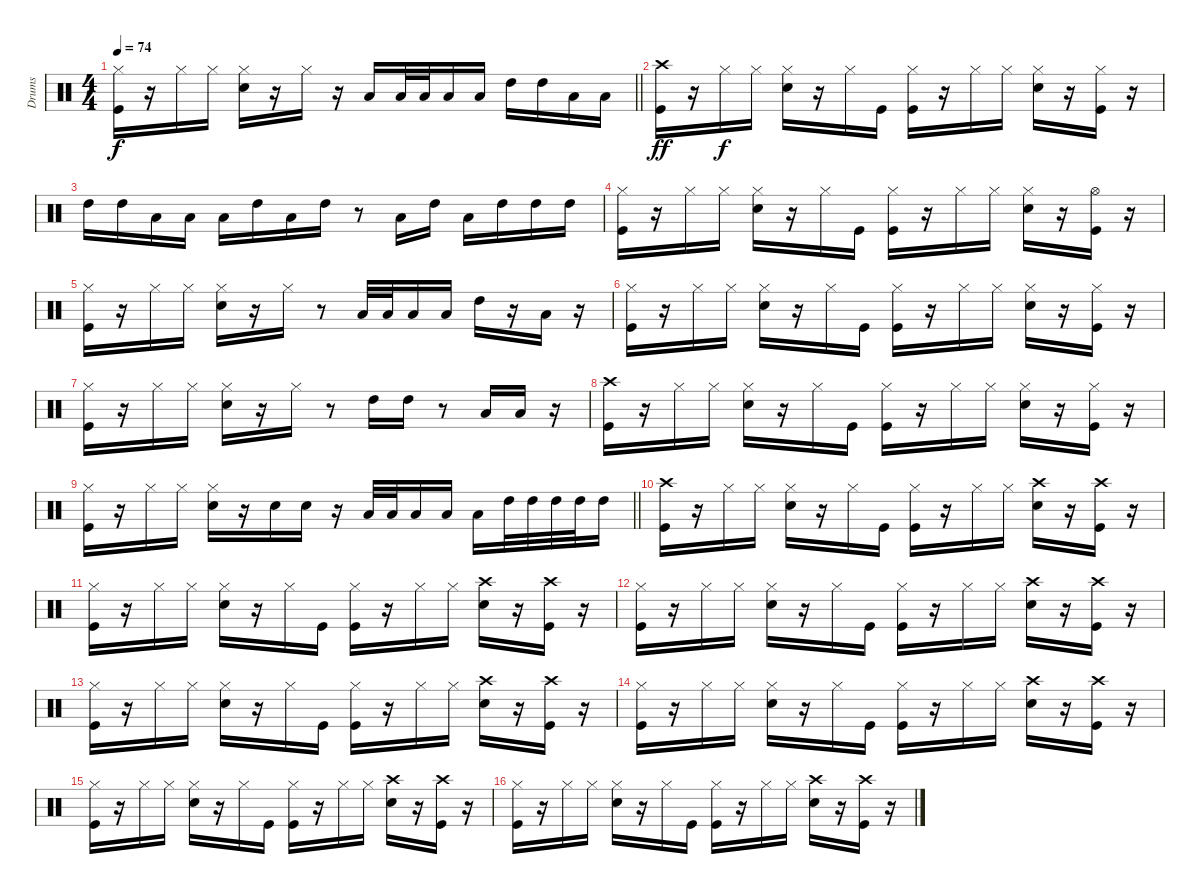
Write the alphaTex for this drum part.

\track ("Drums" "Drums") {instrument percussion}
\staff {score}
\articulation defaults
\ts (4 4)
\tempo 74
\clef neutral
\barLineRight lightlight
\ks c
("Kick (hit)" "Hi-Hat (closed)").16{dy f} r.16 "Hi-Hat (closed)".16 "Hi-Hat (closed)".16 ("Snare (hit) 2" "Hi-Hat (closed)").16 r.16 "Hi-Hat (closed)".16 r.16 "Low Floor Tom (hit)".16 "Low Floor Tom (hit)".32 "Low Floor Tom (hit)".32 "Low Floor Tom (hit)".16 "Low Floor Tom (hit)".16 "High Tom (hit)".16 "High Tom (hit)".16 "Low Floor Tom (hit)".16 "Low Floor Tom (hit)".16 |
\section ("" "")
("Kick (hit)" "Crash high (hit)").16{dy ff} r.16 "Hi-Hat (closed)".16{dy f} "Hi-Hat (closed)".16 ("Snare (hit) 2" "Hi-Hat (closed)").16 r.16 "Hi-Hat (closed)".16 "Kick (hit)".16 ("Kick (hit)" "Hi-Hat (closed)").16 r.16 "Hi-Hat (closed)".16 "Hi-Hat (closed)".16 ("Snare (hit) 2" "Hi-Hat (closed)").16 r.16 ("Kick (hit)" "Hi-Hat (closed)").16 r.16 |
"High Tom (hit)".16 "High Tom (hit)".16 "Low Tom (hit)".16 "Low Floor Tom (hit)".16 "Low Floor Tom (hit)".16 "High Tom (hit)".16 "Low Floor Tom (hit)".16 "High Tom (hit)".16 r.8 "Low Floor Tom (hit)".16 "High Tom (hit)".16 "Low Floor Tom (hit)".16 "High Tom (hit)".16 "High Tom (hit)".16 "High Tom (hit)".16 |
("Kick (hit)" "Hi-Hat (closed)").16 r.16 "Hi-Hat (closed)".16 "Hi-Hat (closed)".16 ("Snare (hit) 2" "Hi-Hat (closed)").16 r.16 "Hi-Hat (closed)".16 "Kick (hit)".16 ("Kick (hit)" "Hi-Hat (closed)").16 r.16 "Hi-Hat (closed)".16 "Hi-Hat (closed)".16 ("Snare (hit) 2" "Hi-Hat (closed)").16 r.16 ("Kick (hit)" "Hi-Hat (open)").16 r.16 |
("Kick (hit)" "Hi-Hat (closed)").16 r.16 "Hi-Hat (closed)".16 "Hi-Hat (closed)".16 ("Snare (hit) 2" "Hi-Hat (closed)").16 r.16 "Hi-Hat (closed)".16 r.8 "Low Floor Tom (hit)".32 "Low Floor Tom (hit)".32 "Low Floor Tom (hit)".16 "Low Floor Tom (hit)".16 "High Tom (hit)".16 r.16 "Low Floor Tom (hit)".16 r.16 |
("Kick (hit)" "Hi-Hat (closed)").16 r.16 "Hi-Hat (closed)".16 "Hi-Hat (closed)".16 ("Snare (hit) 2" "Hi-Hat (closed)").16 r.16 "Hi-Hat (closed)".16 "Kick (hit)".16 ("Kick (hit)" "Hi-Hat (closed)").16 r.16 "Hi-Hat (closed)".16 "Hi-Hat (closed)".16 ("Snare (hit) 2" "Hi-Hat (closed)").16 r.16 ("Kick (hit)" "Hi-Hat (closed)").16 r.16 |
("Kick (hit)" "Hi-Hat (closed)").16 r.16 "Hi-Hat (closed)".16 "Hi-Hat (closed)".16 ("Snare (hit) 2" "Hi-Hat (closed)").16 r.16 "Hi-Hat (closed)".16 r.8 "High Tom (hit)".16 "High Tom (hit)".16 r.8 "Low Floor Tom (hit)".16 "Low Floor Tom (hit)".16 r.16 |
("Kick (hit)" "Crash high (hit)").16 r.16 "Hi-Hat (closed)".16 "Hi-Hat (closed)".16 ("Snare (hit) 2" "Hi-Hat (closed)").16 r.16 "Hi-Hat (closed)".16 "Kick (hit)".16 ("Kick (hit)" "Hi-Hat (closed)").16 r.16 "Hi-Hat (closed)".16 "Hi-Hat (closed)".16 ("Snare (hit) 2" "Hi-Hat (closed)").16 r.16 ("Kick (hit)" "Hi-Hat (closed)").16 r.16 |
\barLineRight lightlight
("Kick (hit)" "Hi-Hat (closed)").16 r.16 "Hi-Hat (closed)".16 "Hi-Hat (closed)".16 ("Snare (hit) 2" "Hi-Hat (closed)").16 r.16 "Snare (hit) 2".16 "Snare (hit) 2".16 r.16 "Low Floor Tom (hit)".32 "Low Floor Tom (hit)".32 "Low Floor Tom (hit)".16 "Low Floor Tom (hit)".16 "Low Floor Tom (hit)".16 "High Tom (hit)".32 "High Tom (hit)".32 "High Tom (hit)".32 "High Tom (hit)".32 "High Tom (hit)".16 |
\section ("" "")
("Kick (hit)" "Crash high (hit)").16 r.16 "Hi-Hat (closed)".16 "Hi-Hat (closed)".16 ("Snare (hit) 2" "Hi-Hat (closed)").16 r.16 "Hi-Hat (closed)".16 "Kick (hit)".16 ("Kick (hit)" "Hi-Hat (closed)").16 r.16 "Hi-Hat (closed)".16 "Hi-Hat (closed)".16 ("Crash high (hit)" "Snare (hit) 2").16 r.16 ("Kick (hit)" "Crash high (hit)").16 r.16 |
("Kick (hit)" "Hi-Hat (closed)").16 r.16 "Hi-Hat (closed)".16 "Hi-Hat (closed)".16 ("Snare (hit) 2" "Hi-Hat (closed)").16 r.16 "Hi-Hat (closed)".16 "Kick (hit)".16 ("Kick (hit)" "Hi-Hat (closed)").16 r.16 "Hi-Hat (closed)".16 "Hi-Hat (closed)".16 ("Crash high (hit)" "Snare (hit) 2").16 r.16 ("Kick (hit)" "Crash high (hit)").16 r.16 |
("Kick (hit)" "Hi-Hat (closed)").16 r.16 "Hi-Hat (closed)".16 "Hi-Hat (closed)".16 ("Snare (hit) 2" "Hi-Hat (closed)").16 r.16 "Hi-Hat (closed)".16 "Kick (hit)".16 ("Kick (hit)" "Hi-Hat (closed)").16 r.16 "Hi-Hat (closed)".16 "Hi-Hat (closed)".16 ("Crash high (hit)" "Snare (hit) 2").16 r.16 ("Kick (hit)" "Crash high (hit)").16 r.16 |
("Kick (hit)" "Hi-Hat (closed)").16 r.16 "Hi-Hat (closed)".16 "Hi-Hat (closed)".16 ("Snare (hit) 2" "Hi-Hat (closed)").16 r.16 "Hi-Hat (closed)".16 "Kick (hit)".16 ("Kick (hit)" "Hi-Hat (closed)").16 r.16 "Hi-Hat (closed)".16 "Hi-Hat (closed)".16 ("Crash high (hit)" "Snare (hit) 2").16 r.16 ("Kick (hit)" "Crash high (hit)").16 r.16 |
("Kick (hit)" "Hi-Hat (closed)").16 r.16 "Hi-Hat (closed)".16 "Hi-Hat (closed)".16 ("Snare (hit) 2" "Hi-Hat (closed)").16 r.16 "Hi-Hat (closed)".16 "Kick (hit)".16 ("Kick (hit)" "Hi-Hat (closed)").16 r.16 "Hi-Hat (closed)".16 "Hi-Hat (closed)".16 ("Crash high (hit)" "Snare (hit) 2").16 r.16 ("Kick (hit)" "Crash high (hit)").16 r.16 |
("Kick (hit)" "Hi-Hat (closed)").16 r.16 "Hi-Hat (closed)".16 "Hi-Hat (closed)".16 ("Snare (hit) 2" "Hi-Hat (closed)").16 r.16 "Hi-Hat (closed)".16 "Kick (hit)".16 ("Kick (hit)" "Hi-Hat (closed)").16 r.16 "Hi-Hat (closed)".16 "Hi-Hat (closed)".16 ("Crash high (hit)" "Snare (hit) 2").16 r.16 ("Kick (hit)" "Crash high (hit)").16 r.16 |
("Kick (hit)" "Hi-Hat (closed)").16 r.16 "Hi-Hat (closed)".16 "Hi-Hat (closed)".16 ("Snare (hit) 2" "Hi-Hat (closed)").16 r.16 "Hi-Hat (closed)".16 "Kick (hit)".16 ("Kick (hit)" "Hi-Hat (closed)").16 r.16 "Hi-Hat (closed)".16 "Hi-Hat (closed)".16 ("Crash high (hit)" "Snare (hit) 2").16 r.16 ("Kick (hit)" "Crash high (hit)").16 r.16
